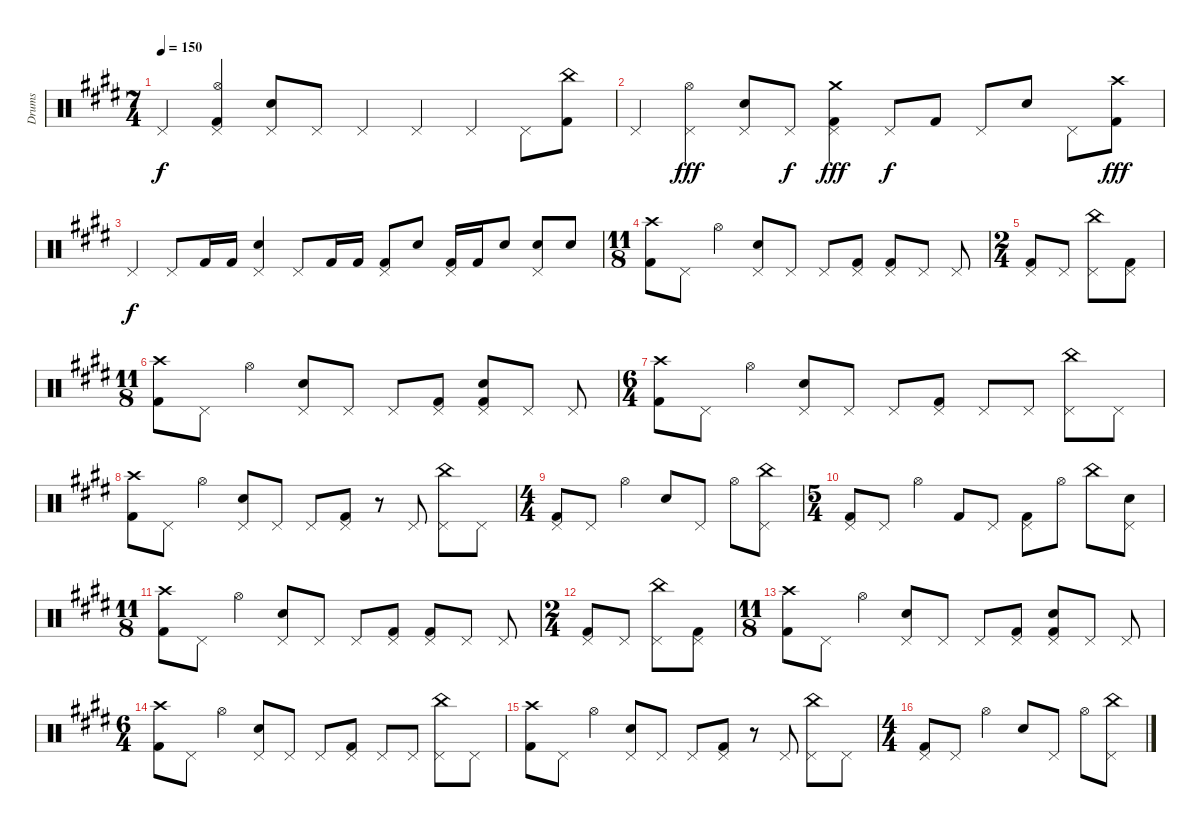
\track ("Drums" "Drums") {instrument percussion}
\staff {score}
\articulation defaults
\ts (7 4)
\tempo 150
\clef neutral
\ks e "Pedal Hi-Hat (hit)".4{dy f}
("Pedal Hi-Hat (hit)" "Hi-Hat (open)" "Kick (hit) 2").4 ("Pedal Hi-Hat (hit)" "Electric Snare (hit)").8 "Pedal Hi-Hat (hit)".8 "Pedal Hi-Hat (hit)".4 "Pedal Hi-Hat (hit)".4 "Pedal Hi-Hat (hit)".4 "Pedal Hi-Hat (hit)".8 ("China (hit)" "Kick (hit) 2").8 |
"Pedal Hi-Hat (hit)".4 ("Pedal Hi-Hat (hit)" "Hi-Hat (open)").4{dy fff} ("Pedal Hi-Hat (hit)" "Electric Snare (hit)").8 "Pedal Hi-Hat (hit)".8{dy f} ("Pedal Hi-Hat (hit)" "Crash medium (hit)" "Kick (hit) 2").4{dy fff} "Pedal Hi-Hat (hit)".8{dy f} "Kick (hit) 2".8 "Pedal Hi-Hat (hit)".8 "Electric Snare (hit)".8 "Pedal Hi-Hat (hit)".8 ("Crash high (hit)" "Kick (hit) 2").8{dy fff} |
"Pedal Hi-Hat (hit)".4{dy f} "Pedal Hi-Hat (hit)".8 "Kick (hit) 2".16 "Kick (hit) 2".16 ("Pedal Hi-Hat (hit)" "Electric Snare (hit)").4 "Pedal Hi-Hat (hit)".8 "Kick (hit) 2".16 "Kick (hit) 2".16 ("Pedal Hi-Hat (hit)" "Kick (hit) 2").8 "Electric Snare (hit)".8 ("Pedal Hi-Hat (hit)" "Kick (hit) 2").16 "Kick (hit) 2".16 "Electric Snare (hit)".8 ("Pedal Hi-Hat (hit)" "Electric Snare (hit)").8 "Electric Snare (hit)".8 |
\ts (11 8)
\section ("" "")
("Crash high (hit)" "Kick (hit) 2").8 "Pedal Hi-Hat (hit)".8 "Hi-Hat (open)".4 ("Pedal Hi-Hat (hit)" "Electric Snare (hit)").8 "Pedal Hi-Hat (hit)".8 "Pedal Hi-Hat (hit)".8 ("Pedal Hi-Hat (hit)" "Kick (hit) 2").8 ("Pedal Hi-Hat (hit)" "Kick (hit) 2").8 "Pedal Hi-Hat (hit)".8 "Pedal Hi-Hat (hit)".8 |
\ts (2 4)
("Pedal Hi-Hat (hit)" "Kick (hit) 2").8 "Pedal Hi-Hat (hit)".8 ("Pedal Hi-Hat (hit)" "China (hit)").8 ("Pedal Hi-Hat (hit)" "Kick (hit) 2").8 |
\ts (11 8)
("Crash high (hit)" "Kick (hit) 2").8 "Pedal Hi-Hat (hit)".8 "Hi-Hat (open)".4 ("Pedal Hi-Hat (hit)" "Electric Snare (hit)").8 "Pedal Hi-Hat (hit)".8 "Pedal Hi-Hat (hit)".8 ("Pedal Hi-Hat (hit)" "Kick (hit) 2").8 ("Pedal Hi-Hat (hit)" "Kick (hit) 2" "Electric Snare (hit)").8 "Pedal Hi-Hat (hit)".8 "Pedal Hi-Hat (hit)".8 |
\ts (6 4)
("Crash high (hit)" "Kick (hit) 2").8 "Pedal Hi-Hat (hit)".8 "Hi-Hat (open)".4 ("Pedal Hi-Hat (hit)" "Electric Snare (hit)").8 "Pedal Hi-Hat (hit)".8 "Pedal Hi-Hat (hit)".8 ("Pedal Hi-Hat (hit)" "Kick (hit) 2").8 "Pedal Hi-Hat (hit)".8 "Pedal Hi-Hat (hit)".8 ("Pedal Hi-Hat (hit)" "China (hit)").8 "Pedal Hi-Hat (hit)".8 |
("Crash high (hit)" "Kick (hit) 2").8 "Pedal Hi-Hat (hit)".8 "Hi-Hat (open)".4 ("Pedal Hi-Hat (hit)" "Electric Snare (hit)").8 "Pedal Hi-Hat (hit)".8 "Pedal Hi-Hat (hit)".8 ("Pedal Hi-Hat (hit)" "Kick (hit) 2").8 r.8 "Pedal Hi-Hat (hit)".8 ("Pedal Hi-Hat (hit)" "China (hit)").8 "Pedal Hi-Hat (hit)".8 |
\ts (4 4)
("Pedal Hi-Hat (hit)" "Kick (hit) 2").8 "Pedal Hi-Hat (hit)".8 "Hi-Hat (open)".4 "Electric Snare (hit)".8 "Pedal Hi-Hat (hit)".8 "Hi-Hat (open)".8 ("Pedal Hi-Hat (hit)" "China (hit)").8 |
\ts (5 4)
("Pedal Hi-Hat (hit)" "Kick (hit) 2").8 "Pedal Hi-Hat (hit)".8 "Hi-Hat (open)".4 "Kick (hit) 2".8 "Pedal Hi-Hat (hit)".8 ("Pedal Hi-Hat (hit)" "Kick (hit) 2").8 "Hi-Hat (open)".8 "China (hit)".8 ("Pedal Hi-Hat (hit)" "Electric Snare (hit)").8 |
\ts (11 8)
("Crash high (hit)" "Kick (hit) 2").8 "Pedal Hi-Hat (hit)".8 "Hi-Hat (open)".4 ("Pedal Hi-Hat (hit)" "Electric Snare (hit)").8 "Pedal Hi-Hat (hit)".8 "Pedal Hi-Hat (hit)".8 ("Pedal Hi-Hat (hit)" "Kick (hit) 2").8 ("Pedal Hi-Hat (hit)" "Kick (hit) 2").8 "Pedal Hi-Hat (hit)".8 "Pedal Hi-Hat (hit)".8 |
\ts (2 4)
("Pedal Hi-Hat (hit)" "Kick (hit) 2").8 "Pedal Hi-Hat (hit)".8 ("Pedal Hi-Hat (hit)" "China (hit)").8 ("Pedal Hi-Hat (hit)" "Kick (hit) 2").8 |
\ts (11 8)
("Crash high (hit)" "Kick (hit) 2").8 "Pedal Hi-Hat (hit)".8 "Hi-Hat (open)".4 ("Pedal Hi-Hat (hit)" "Electric Snare (hit)").8 "Pedal Hi-Hat (hit)".8 "Pedal Hi-Hat (hit)".8 ("Pedal Hi-Hat (hit)" "Kick (hit) 2").8 ("Pedal Hi-Hat (hit)" "Kick (hit) 2" "Electric Snare (hit)").8 "Pedal Hi-Hat (hit)".8 "Pedal Hi-Hat (hit)".8 |
\ts (6 4)
("Crash high (hit)" "Kick (hit) 2").8 "Pedal Hi-Hat (hit)".8 "Hi-Hat (open)".4 ("Pedal Hi-Hat (hit)" "Electric Snare (hit)").8 "Pedal Hi-Hat (hit)".8 "Pedal Hi-Hat (hit)".8 ("Pedal Hi-Hat (hit)" "Kick (hit) 2").8 "Pedal Hi-Hat (hit)".8 "Pedal Hi-Hat (hit)".8 ("Pedal Hi-Hat (hit)" "China (hit)").8 "Pedal Hi-Hat (hit)".8 |
("Crash high (hit)" "Kick (hit) 2").8 "Pedal Hi-Hat (hit)".8 "Hi-Hat (open)".4 ("Pedal Hi-Hat (hit)" "Electric Snare (hit)").8 "Pedal Hi-Hat (hit)".8 "Pedal Hi-Hat (hit)".8 ("Pedal Hi-Hat (hit)" "Kick (hit) 2").8 r.8 "Pedal Hi-Hat (hit)".8 ("Pedal Hi-Hat (hit)" "China (hit)").8 "Pedal Hi-Hat (hit)".8 |
\ts (4 4)
("Pedal Hi-Hat (hit)" "Kick (hit) 2").8 "Pedal Hi-Hat (hit)".8 "Hi-Hat (open)".4 "Electric Snare (hit)".8 "Pedal Hi-Hat (hit)".8 "Hi-Hat (open)".8 ("Pedal Hi-Hat (hit)" "China (hit)").8
